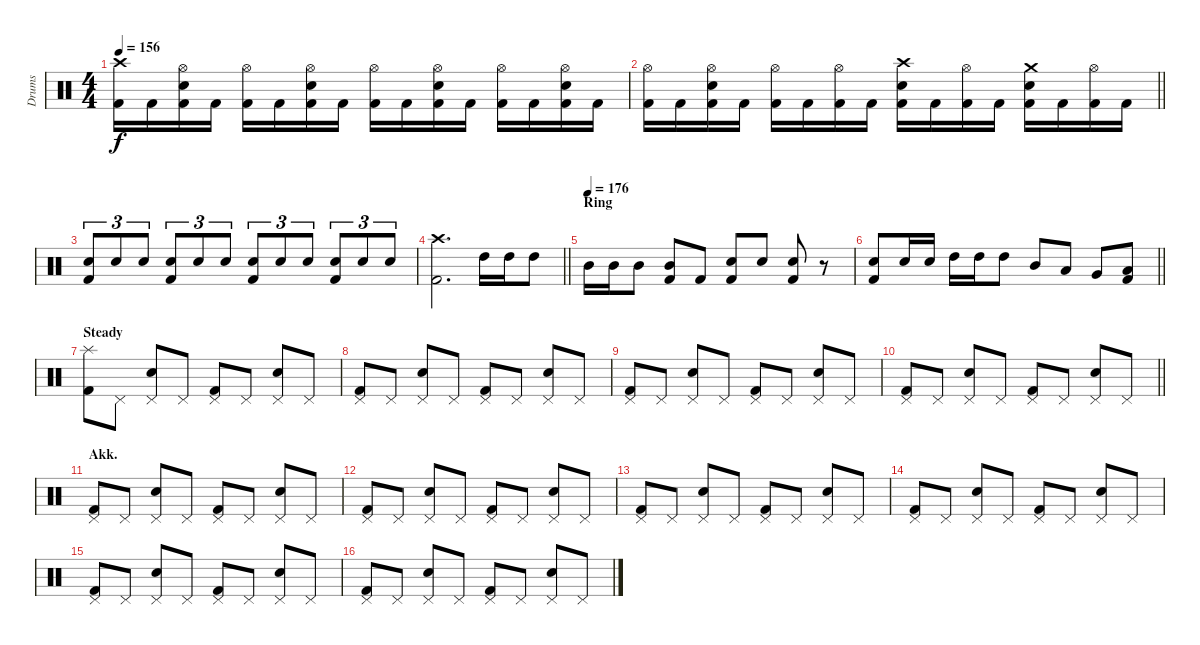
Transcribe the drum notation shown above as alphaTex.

\track ("Drums" "Drums") {instrument percussion}
\staff {score}
\articulation defaults
\ts (4 4)
\tempo 156
\clef neutral
\ks c
("Crash high (hit)" "Kick (hit) 2").16{dy f} "Kick (hit) 2".16 ("Hi-Hat (open)" "Snare (hit) 2" "Kick (hit) 2").16 "Kick (hit) 2".16 ("Hi-Hat (open)" "Kick (hit) 2").16 "Kick (hit) 2".16 ("Hi-Hat (open)" "Snare (hit) 2" "Kick (hit) 2").16 "Kick (hit) 2".16 ("Hi-Hat (open)" "Kick (hit) 2").16 "Kick (hit) 2".16 ("Hi-Hat (open)" "Snare (hit) 2" "Kick (hit) 2").16 "Kick (hit) 2".16 ("Hi-Hat (open)" "Kick (hit) 2").16 "Kick (hit) 2".16 ("Hi-Hat (open)" "Snare (hit) 2" "Kick (hit) 2").16 "Kick (hit) 2".16 |
\barLineRight lightlight
("Hi-Hat (open)" "Kick (hit) 2").16 "Kick (hit) 2".16 ("Hi-Hat (open)" "Snare (hit) 2" "Kick (hit) 2").16 "Kick (hit) 2".16 ("Hi-Hat (open)" "Kick (hit) 2").16 "Kick (hit) 2".16 ("Hi-Hat (open)" "Kick (hit) 2").16 "Kick (hit) 2".16 ("Crash high (hit)" "Snare (hit) 2" "Kick (hit) 2").16 "Kick (hit) 2".16 ("Hi-Hat (open)" "Kick (hit) 2").16 "Kick (hit) 2".16 ("Crash medium (hit)" "Snare (hit) 2" "Kick (hit) 2").16 "Kick (hit) 2".16 ("Hi-Hat (open)" "Kick (hit) 2").16 "Kick (hit) 2".16 |
("Snare (hit) 2" "Kick (hit) 2").8{tu (3 2)} "Snare (hit) 2".8{tu (3 2)} "Snare (hit) 2".8{tu (3 2)} ("Snare (hit) 2" "Kick (hit) 2").8{tu (3 2)} "Snare (hit) 2".8{tu (3 2)} "Snare (hit) 2".8{tu (3 2)} ("Snare (hit) 2" "Kick (hit) 2").8{tu (3 2)} "Snare (hit) 2".8{tu (3 2)} "Snare (hit) 2".8{tu (3 2)} ("Snare (hit) 2" "Kick (hit) 2").8{tu (3 2)} "Snare (hit) 2".8{tu (3 2)} "Snare (hit) 2".8{tu (3 2)} |
\barLineRight lightlight
("Crash high (hit)" "Kick (hit) 2").2{d} "High Tom (hit)".16 "High Tom (hit)".16 "High Tom (hit)".8 |
\section ("" "Ring")
\tempo (176)
"Mid Tom (hit)".16 "Mid Tom (hit)".16 "Mid Tom (hit)".8 ("Mid Tom (hit)" "Kick (hit) 2").8 "Kick (hit) 2".8 ("Snare (hit) 2" "Kick (hit) 2").8 "Snare (hit) 2".8 ("Snare (hit) 2" "Kick (hit) 2").8 r.8 |
\barLineRight lightlight
("Snare (hit) 2" "Kick (hit) 2").8 "Snare (hit) 2".16 "Snare (hit) 2".16 "High Tom (hit)".16 "High Tom (hit)".16 "High Tom (hit)".8 "Mid Tom (hit)".8 "Low Tom (hit)".8 "Very Low Tom (hit)".8 ("Low Floor Tom (hit)" "Kick (hit) 2").8 |
\section ("" "Steady")
("Splash (hit)" "Kick (hit) 2").8 "Pedal Hi-Hat (hit)".8 ("Pedal Hi-Hat (hit)" "Snare (hit) 2").8 "Pedal Hi-Hat (hit)".8 ("Pedal Hi-Hat (hit)" "Kick (hit) 2").8 "Pedal Hi-Hat (hit)".8 ("Pedal Hi-Hat (hit)" "Snare (hit) 2").8 "Pedal Hi-Hat (hit)".8 |
("Pedal Hi-Hat (hit)" "Kick (hit) 2").8 "Pedal Hi-Hat (hit)".8 ("Pedal Hi-Hat (hit)" "Snare (hit) 2").8 "Pedal Hi-Hat (hit)".8 ("Pedal Hi-Hat (hit)" "Kick (hit) 2").8 "Pedal Hi-Hat (hit)".8 ("Pedal Hi-Hat (hit)" "Snare (hit) 2").8 "Pedal Hi-Hat (hit)".8 |
("Pedal Hi-Hat (hit)" "Kick (hit) 2").8 "Pedal Hi-Hat (hit)".8 ("Pedal Hi-Hat (hit)" "Snare (hit) 2").8 "Pedal Hi-Hat (hit)".8 ("Pedal Hi-Hat (hit)" "Kick (hit) 2").8 "Pedal Hi-Hat (hit)".8 ("Pedal Hi-Hat (hit)" "Snare (hit) 2").8 "Pedal Hi-Hat (hit)".8 |
\barLineRight lightlight
("Pedal Hi-Hat (hit)" "Kick (hit) 2").8 "Pedal Hi-Hat (hit)".8 ("Pedal Hi-Hat (hit)" "Snare (hit) 2").8 "Pedal Hi-Hat (hit)".8 ("Pedal Hi-Hat (hit)" "Kick (hit) 2").8 "Pedal Hi-Hat (hit)".8 ("Pedal Hi-Hat (hit)" "Snare (hit) 2").8 "Pedal Hi-Hat (hit)".8 |
\section ("" "Akk.")
("Pedal Hi-Hat (hit)" "Kick (hit) 2").8 "Pedal Hi-Hat (hit)".8 ("Pedal Hi-Hat (hit)" "Snare (hit) 2").8 "Pedal Hi-Hat (hit)".8 ("Pedal Hi-Hat (hit)" "Kick (hit) 2").8 "Pedal Hi-Hat (hit)".8 ("Pedal Hi-Hat (hit)" "Snare (hit) 2").8 "Pedal Hi-Hat (hit)".8 |
("Pedal Hi-Hat (hit)" "Kick (hit) 2").8 "Pedal Hi-Hat (hit)".8 ("Pedal Hi-Hat (hit)" "Snare (hit) 2").8 "Pedal Hi-Hat (hit)".8 ("Pedal Hi-Hat (hit)" "Kick (hit) 2").8 "Pedal Hi-Hat (hit)".8 ("Pedal Hi-Hat (hit)" "Snare (hit) 2").8 "Pedal Hi-Hat (hit)".8 |
("Pedal Hi-Hat (hit)" "Kick (hit) 2").8 "Pedal Hi-Hat (hit)".8 ("Pedal Hi-Hat (hit)" "Snare (hit) 2").8 "Pedal Hi-Hat (hit)".8 ("Pedal Hi-Hat (hit)" "Kick (hit) 2").8 "Pedal Hi-Hat (hit)".8 ("Pedal Hi-Hat (hit)" "Snare (hit) 2").8 "Pedal Hi-Hat (hit)".8 |
("Pedal Hi-Hat (hit)" "Kick (hit) 2").8 "Pedal Hi-Hat (hit)".8 ("Pedal Hi-Hat (hit)" "Snare (hit) 2").8 "Pedal Hi-Hat (hit)".8 ("Pedal Hi-Hat (hit)" "Kick (hit) 2").8 "Pedal Hi-Hat (hit)".8 ("Pedal Hi-Hat (hit)" "Snare (hit) 2").8 "Pedal Hi-Hat (hit)".8 |
("Pedal Hi-Hat (hit)" "Kick (hit) 2").8 "Pedal Hi-Hat (hit)".8 ("Pedal Hi-Hat (hit)" "Snare (hit) 2").8 "Pedal Hi-Hat (hit)".8 ("Pedal Hi-Hat (hit)" "Kick (hit) 2").8 "Pedal Hi-Hat (hit)".8 ("Pedal Hi-Hat (hit)" "Snare (hit) 2").8 "Pedal Hi-Hat (hit)".8 |
("Pedal Hi-Hat (hit)" "Kick (hit) 2").8 "Pedal Hi-Hat (hit)".8 ("Pedal Hi-Hat (hit)" "Snare (hit) 2").8 "Pedal Hi-Hat (hit)".8 ("Pedal Hi-Hat (hit)" "Kick (hit) 2").8 "Pedal Hi-Hat (hit)".8 ("Pedal Hi-Hat (hit)" "Snare (hit) 2").8 "Pedal Hi-Hat (hit)".8
